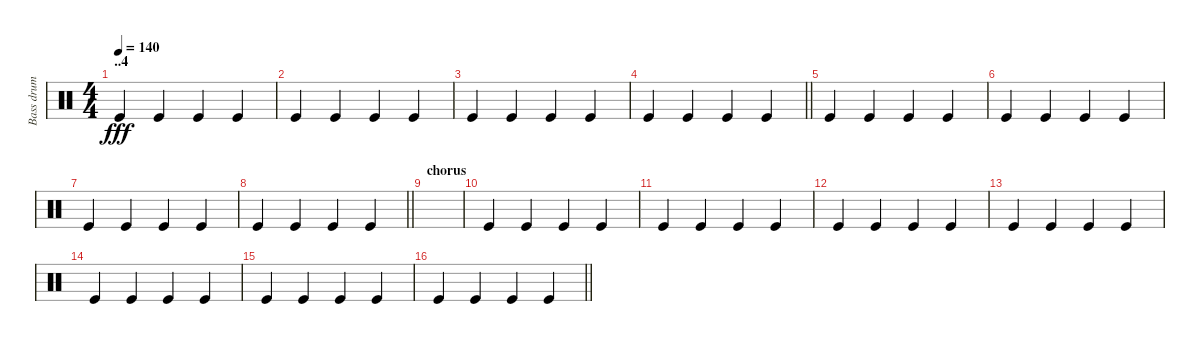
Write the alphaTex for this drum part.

\track ("Bass drum " "Bass drum ") {instrument percussion}
\staff {score}
\articulation defaults
\ts (4 4)
\section ("" "..4")
\tempo 140
\clef neutral
\ks c "Kick (hit)".4{dy fff} "Kick (hit)".4 "Kick (hit)".4 "Kick (hit)".4
|
"Kick (hit)".4 "Kick (hit)".4 "Kick (hit)".4 "Kick (hit)".4 |
"Kick (hit)".4 "Kick (hit)".4 "Kick (hit)".4 "Kick (hit)".4 |
\barLineRight lightlight "Kick (hit)".4 "Kick (hit)".4 "Kick (hit)".4 "Kick (hit)".4
|
"Kick (hit)".4 "Kick (hit)".4 "Kick (hit)".4 "Kick (hit)".4 |
"Kick (hit)".4 "Kick (hit)".4 "Kick (hit)".4 "Kick (hit)".4 |
"Kick (hit)".4 "Kick (hit)".4 "Kick (hit)".4 "Kick (hit)".4 |
\barLineRight lightlight "Kick (hit)".4 "Kick (hit)".4 "Kick (hit)".4 "Kick (hit)".4
|
\section ("" "chorus ")
|
"Kick (hit)".4 "Kick (hit)".4 "Kick (hit)".4 "Kick (hit)".4 |
"Kick (hit)".4 "Kick (hit)".4 "Kick (hit)".4 "Kick (hit)".4 |
"Kick (hit)".4 "Kick (hit)".4 "Kick (hit)".4 "Kick (hit)".4 |
"Kick (hit)".4 "Kick (hit)".4 "Kick (hit)".4 "Kick (hit)".4 |
"Kick (hit)".4 "Kick (hit)".4 "Kick (hit)".4 "Kick (hit)".4 |
"Kick (hit)".4 "Kick (hit)".4 "Kick (hit)".4 "Kick (hit)".4 |
\barLineRight lightlight "Kick (hit)".4 "Kick (hit)".4 "Kick (hit)".4 "Kick (hit)".4
